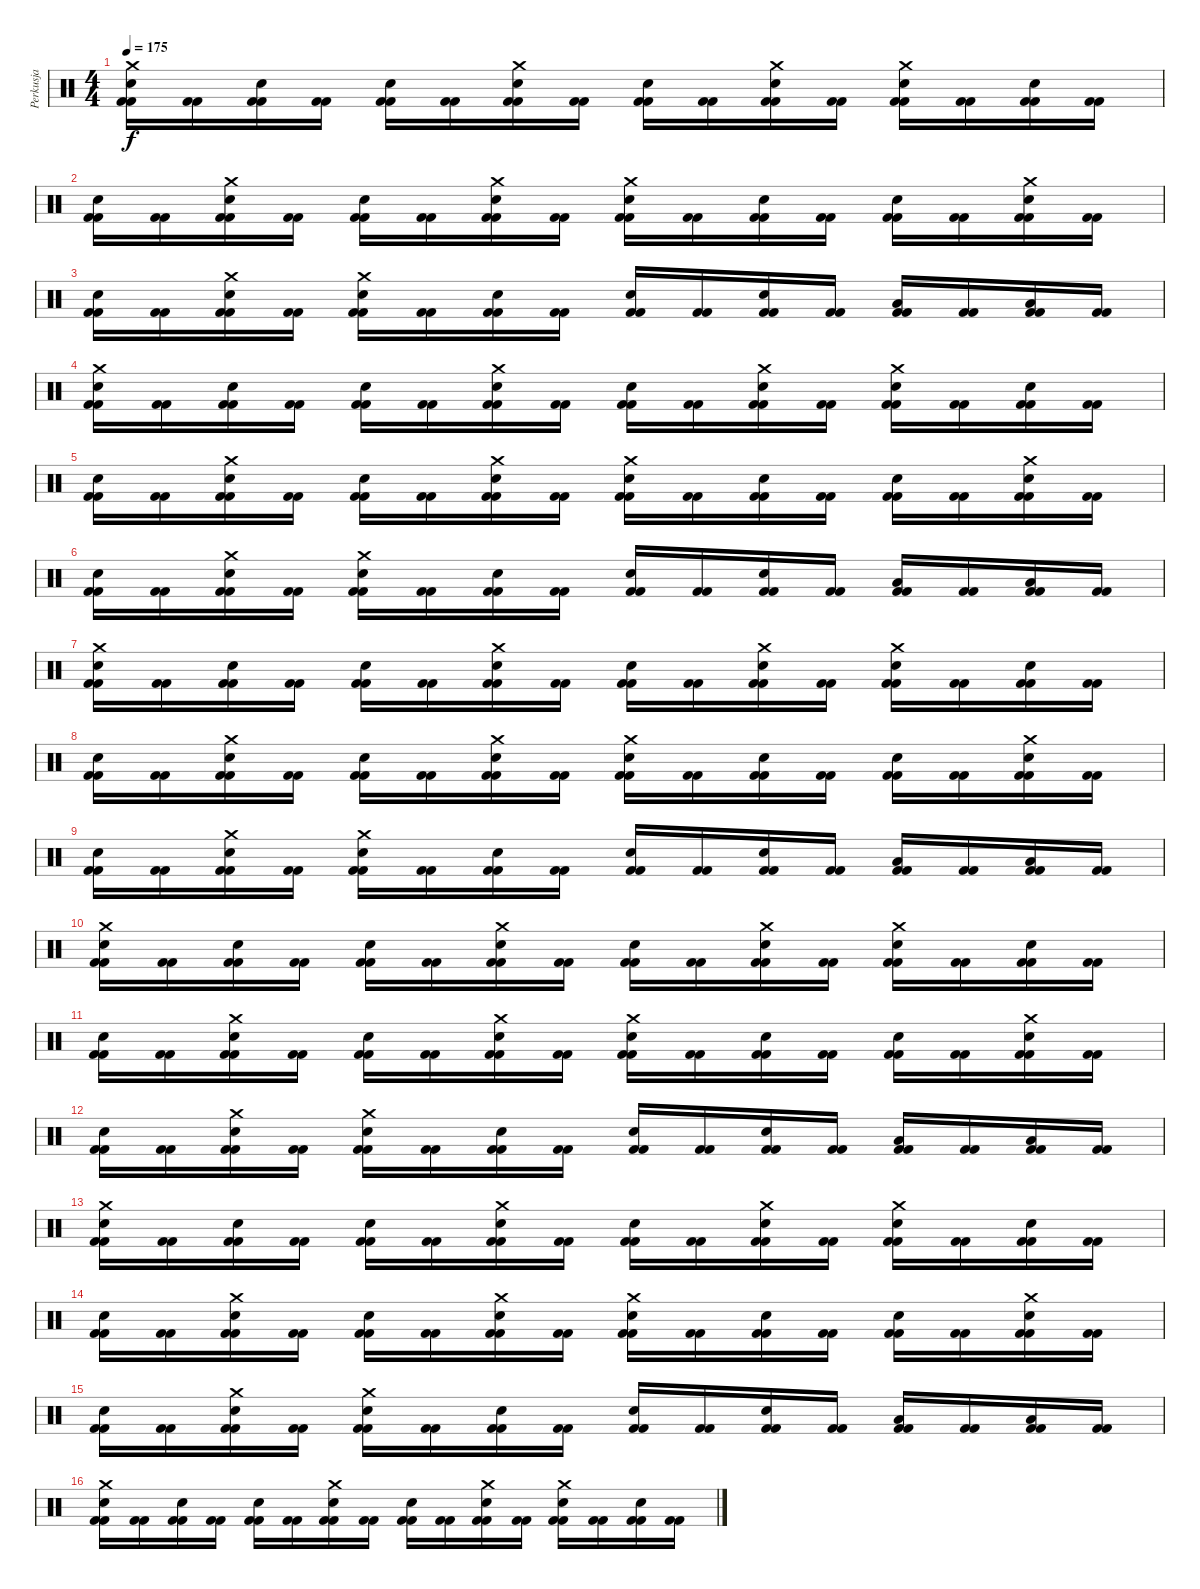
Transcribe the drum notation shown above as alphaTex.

\track ("Perkusja" "Perkusja") {instrument percussion}
\staff {score}
\articulation defaults
\ts (4 4)
\tempo 175
\clef neutral
\ks c
("Crash medium (hit)" "Snare (hit) 2" "Kick (hit) 2" "Kick (hit) 2").16{dy f} ("Kick (hit) 2" "Kick (hit) 2").16 ("Snare (hit) 2" "Kick (hit) 2" "Kick (hit) 2").16 ("Kick (hit) 2" "Kick (hit) 2").16 ("Snare (hit) 2" "Kick (hit) 2" "Kick (hit) 2").16 ("Kick (hit) 2" "Kick (hit) 2").16 ("Crash medium (hit)" "Snare (hit) 2" "Kick (hit) 2" "Kick (hit) 2").16 ("Kick (hit) 2" "Kick (hit) 2").16 ("Snare (hit) 2" "Kick (hit) 2" "Kick (hit) 2").16 ("Kick (hit) 2" "Kick (hit) 2").16 ("Crash medium (hit)" "Snare (hit) 2" "Kick (hit) 2" "Kick (hit) 2").16 ("Kick (hit) 2" "Kick (hit) 2").16 ("Crash medium (hit)" "Snare (hit) 2" "Kick (hit) 2" "Kick (hit) 2").16 ("Kick (hit) 2" "Kick (hit) 2").16 ("Snare (hit) 2" "Kick (hit) 2" "Kick (hit) 2").16 ("Kick (hit) 2" "Kick (hit) 2").16 |
("Snare (hit) 2" "Kick (hit) 2" "Kick (hit) 2").16 ("Kick (hit) 2" "Kick (hit) 2").16 ("Crash medium (hit)" "Snare (hit) 2" "Kick (hit) 2" "Kick (hit) 2").16 ("Kick (hit) 2" "Kick (hit) 2").16 ("Snare (hit) 2" "Kick (hit) 2" "Kick (hit) 2").16 ("Kick (hit) 2" "Kick (hit) 2").16 ("Crash medium (hit)" "Snare (hit) 2" "Kick (hit) 2" "Kick (hit) 2").16 ("Kick (hit) 2" "Kick (hit) 2").16 ("Crash medium (hit)" "Snare (hit) 2" "Kick (hit) 2" "Kick (hit) 2").16 ("Kick (hit) 2" "Kick (hit) 2").16 ("Snare (hit) 2" "Kick (hit) 2" "Kick (hit) 2").16 ("Kick (hit) 2" "Kick (hit) 2").16 ("Snare (hit) 2" "Kick (hit) 2" "Kick (hit) 2").16 ("Kick (hit) 2" "Kick (hit) 2").16 ("Crash medium (hit)" "Snare (hit) 2" "Kick (hit) 2" "Kick (hit) 2").16 ("Kick (hit) 2" "Kick (hit) 2").16 |
("Snare (hit) 2" "Kick (hit) 2" "Kick (hit) 2").16 ("Kick (hit) 2" "Kick (hit) 2").16 ("Crash medium (hit)" "Snare (hit) 2" "Kick (hit) 2" "Kick (hit) 2").16 ("Kick (hit) 2" "Kick (hit) 2").16 ("Crash medium (hit)" "Snare (hit) 2" "Kick (hit) 2" "Kick (hit) 2").16 ("Kick (hit) 2" "Kick (hit) 2").16 ("Snare (hit) 2" "Kick (hit) 2" "Kick (hit) 2").16 ("Kick (hit) 2" "Kick (hit) 2").16 ("Electric Snare (hit)" "Kick (hit) 2" "Kick (hit) 2").16 ("Kick (hit) 2" "Kick (hit) 2").16 ("Electric Snare (hit)" "Kick (hit) 2" "Kick (hit) 2").16 ("Kick (hit) 2" "Kick (hit) 2").16 ("Low Tom (hit)" "Kick (hit) 2" "Kick (hit) 2").16 ("Kick (hit) 2" "Kick (hit) 2").16 ("Low Tom (hit)" "Kick (hit) 2" "Kick (hit) 2").16 ("Kick (hit) 2" "Kick (hit) 2").16 |
("Crash medium (hit)" "Snare (hit) 2" "Kick (hit) 2" "Kick (hit) 2").16 ("Kick (hit) 2" "Kick (hit) 2").16 ("Snare (hit) 2" "Kick (hit) 2" "Kick (hit) 2").16 ("Kick (hit) 2" "Kick (hit) 2").16 ("Snare (hit) 2" "Kick (hit) 2" "Kick (hit) 2").16 ("Kick (hit) 2" "Kick (hit) 2").16 ("Crash medium (hit)" "Snare (hit) 2" "Kick (hit) 2" "Kick (hit) 2").16 ("Kick (hit) 2" "Kick (hit) 2").16 ("Snare (hit) 2" "Kick (hit) 2" "Kick (hit) 2").16 ("Kick (hit) 2" "Kick (hit) 2").16 ("Crash medium (hit)" "Snare (hit) 2" "Kick (hit) 2" "Kick (hit) 2").16 ("Kick (hit) 2" "Kick (hit) 2").16 ("Crash medium (hit)" "Snare (hit) 2" "Kick (hit) 2" "Kick (hit) 2").16 ("Kick (hit) 2" "Kick (hit) 2").16 ("Snare (hit) 2" "Kick (hit) 2" "Kick (hit) 2").16 ("Kick (hit) 2" "Kick (hit) 2").16 |
("Snare (hit) 2" "Kick (hit) 2" "Kick (hit) 2").16 ("Kick (hit) 2" "Kick (hit) 2").16 ("Crash medium (hit)" "Snare (hit) 2" "Kick (hit) 2" "Kick (hit) 2").16 ("Kick (hit) 2" "Kick (hit) 2").16 ("Snare (hit) 2" "Kick (hit) 2" "Kick (hit) 2").16 ("Kick (hit) 2" "Kick (hit) 2").16 ("Crash medium (hit)" "Snare (hit) 2" "Kick (hit) 2" "Kick (hit) 2").16 ("Kick (hit) 2" "Kick (hit) 2").16 ("Crash medium (hit)" "Snare (hit) 2" "Kick (hit) 2" "Kick (hit) 2").16 ("Kick (hit) 2" "Kick (hit) 2").16 ("Snare (hit) 2" "Kick (hit) 2" "Kick (hit) 2").16 ("Kick (hit) 2" "Kick (hit) 2").16 ("Snare (hit) 2" "Kick (hit) 2" "Kick (hit) 2").16 ("Kick (hit) 2" "Kick (hit) 2").16 ("Crash medium (hit)" "Snare (hit) 2" "Kick (hit) 2" "Kick (hit) 2").16 ("Kick (hit) 2" "Kick (hit) 2").16 |
("Snare (hit) 2" "Kick (hit) 2" "Kick (hit) 2").16 ("Kick (hit) 2" "Kick (hit) 2").16 ("Crash medium (hit)" "Snare (hit) 2" "Kick (hit) 2" "Kick (hit) 2").16 ("Kick (hit) 2" "Kick (hit) 2").16 ("Crash medium (hit)" "Snare (hit) 2" "Kick (hit) 2" "Kick (hit) 2").16 ("Kick (hit) 2" "Kick (hit) 2").16 ("Snare (hit) 2" "Kick (hit) 2" "Kick (hit) 2").16 ("Kick (hit) 2" "Kick (hit) 2").16 ("Electric Snare (hit)" "Kick (hit) 2" "Kick (hit) 2").16 ("Kick (hit) 2" "Kick (hit) 2").16 ("Electric Snare (hit)" "Kick (hit) 2" "Kick (hit) 2").16 ("Kick (hit) 2" "Kick (hit) 2").16 ("Low Tom (hit)" "Kick (hit) 2" "Kick (hit) 2").16 ("Kick (hit) 2" "Kick (hit) 2").16 ("Low Tom (hit)" "Kick (hit) 2" "Kick (hit) 2").16 ("Kick (hit) 2" "Kick (hit) 2").16 |
("Crash medium (hit)" "Snare (hit) 2" "Kick (hit) 2" "Kick (hit) 2").16 ("Kick (hit) 2" "Kick (hit) 2").16 ("Snare (hit) 2" "Kick (hit) 2" "Kick (hit) 2").16 ("Kick (hit) 2" "Kick (hit) 2").16 ("Snare (hit) 2" "Kick (hit) 2" "Kick (hit) 2").16 ("Kick (hit) 2" "Kick (hit) 2").16 ("Crash medium (hit)" "Snare (hit) 2" "Kick (hit) 2" "Kick (hit) 2").16 ("Kick (hit) 2" "Kick (hit) 2").16 ("Snare (hit) 2" "Kick (hit) 2" "Kick (hit) 2").16 ("Kick (hit) 2" "Kick (hit) 2").16 ("Crash medium (hit)" "Snare (hit) 2" "Kick (hit) 2" "Kick (hit) 2").16 ("Kick (hit) 2" "Kick (hit) 2").16 ("Crash medium (hit)" "Snare (hit) 2" "Kick (hit) 2" "Kick (hit) 2").16 ("Kick (hit) 2" "Kick (hit) 2").16 ("Snare (hit) 2" "Kick (hit) 2" "Kick (hit) 2").16 ("Kick (hit) 2" "Kick (hit) 2").16 |
("Snare (hit) 2" "Kick (hit) 2" "Kick (hit) 2").16 ("Kick (hit) 2" "Kick (hit) 2").16 ("Crash medium (hit)" "Snare (hit) 2" "Kick (hit) 2" "Kick (hit) 2").16 ("Kick (hit) 2" "Kick (hit) 2").16 ("Snare (hit) 2" "Kick (hit) 2" "Kick (hit) 2").16 ("Kick (hit) 2" "Kick (hit) 2").16 ("Crash medium (hit)" "Snare (hit) 2" "Kick (hit) 2" "Kick (hit) 2").16 ("Kick (hit) 2" "Kick (hit) 2").16 ("Crash medium (hit)" "Snare (hit) 2" "Kick (hit) 2" "Kick (hit) 2").16 ("Kick (hit) 2" "Kick (hit) 2").16 ("Snare (hit) 2" "Kick (hit) 2" "Kick (hit) 2").16 ("Kick (hit) 2" "Kick (hit) 2").16 ("Snare (hit) 2" "Kick (hit) 2" "Kick (hit) 2").16 ("Kick (hit) 2" "Kick (hit) 2").16 ("Crash medium (hit)" "Snare (hit) 2" "Kick (hit) 2" "Kick (hit) 2").16 ("Kick (hit) 2" "Kick (hit) 2").16 |
("Snare (hit) 2" "Kick (hit) 2" "Kick (hit) 2").16 ("Kick (hit) 2" "Kick (hit) 2").16 ("Crash medium (hit)" "Snare (hit) 2" "Kick (hit) 2" "Kick (hit) 2").16 ("Kick (hit) 2" "Kick (hit) 2").16 ("Crash medium (hit)" "Snare (hit) 2" "Kick (hit) 2" "Kick (hit) 2").16 ("Kick (hit) 2" "Kick (hit) 2").16 ("Snare (hit) 2" "Kick (hit) 2" "Kick (hit) 2").16 ("Kick (hit) 2" "Kick (hit) 2").16 ("Electric Snare (hit)" "Kick (hit) 2" "Kick (hit) 2").16 ("Kick (hit) 2" "Kick (hit) 2").16 ("Electric Snare (hit)" "Kick (hit) 2" "Kick (hit) 2").16 ("Kick (hit) 2" "Kick (hit) 2").16 ("Low Tom (hit)" "Kick (hit) 2" "Kick (hit) 2").16 ("Kick (hit) 2" "Kick (hit) 2").16 ("Low Tom (hit)" "Kick (hit) 2" "Kick (hit) 2").16 ("Kick (hit) 2" "Kick (hit) 2").16 |
("Crash medium (hit)" "Snare (hit) 2" "Kick (hit) 2" "Kick (hit) 2").16 ("Kick (hit) 2" "Kick (hit) 2").16 ("Snare (hit) 2" "Kick (hit) 2" "Kick (hit) 2").16 ("Kick (hit) 2" "Kick (hit) 2").16 ("Snare (hit) 2" "Kick (hit) 2" "Kick (hit) 2").16 ("Kick (hit) 2" "Kick (hit) 2").16 ("Crash medium (hit)" "Snare (hit) 2" "Kick (hit) 2" "Kick (hit) 2").16 ("Kick (hit) 2" "Kick (hit) 2").16 ("Snare (hit) 2" "Kick (hit) 2" "Kick (hit) 2").16 ("Kick (hit) 2" "Kick (hit) 2").16 ("Crash medium (hit)" "Snare (hit) 2" "Kick (hit) 2" "Kick (hit) 2").16 ("Kick (hit) 2" "Kick (hit) 2").16 ("Crash medium (hit)" "Snare (hit) 2" "Kick (hit) 2" "Kick (hit) 2").16 ("Kick (hit) 2" "Kick (hit) 2").16 ("Snare (hit) 2" "Kick (hit) 2" "Kick (hit) 2").16 ("Kick (hit) 2" "Kick (hit) 2").16 |
("Snare (hit) 2" "Kick (hit) 2" "Kick (hit) 2").16 ("Kick (hit) 2" "Kick (hit) 2").16 ("Crash medium (hit)" "Snare (hit) 2" "Kick (hit) 2" "Kick (hit) 2").16 ("Kick (hit) 2" "Kick (hit) 2").16 ("Snare (hit) 2" "Kick (hit) 2" "Kick (hit) 2").16 ("Kick (hit) 2" "Kick (hit) 2").16 ("Crash medium (hit)" "Snare (hit) 2" "Kick (hit) 2" "Kick (hit) 2").16 ("Kick (hit) 2" "Kick (hit) 2").16 ("Crash medium (hit)" "Snare (hit) 2" "Kick (hit) 2" "Kick (hit) 2").16 ("Kick (hit) 2" "Kick (hit) 2").16 ("Snare (hit) 2" "Kick (hit) 2" "Kick (hit) 2").16 ("Kick (hit) 2" "Kick (hit) 2").16 ("Snare (hit) 2" "Kick (hit) 2" "Kick (hit) 2").16 ("Kick (hit) 2" "Kick (hit) 2").16 ("Crash medium (hit)" "Snare (hit) 2" "Kick (hit) 2" "Kick (hit) 2").16 ("Kick (hit) 2" "Kick (hit) 2").16 |
("Snare (hit) 2" "Kick (hit) 2" "Kick (hit) 2").16 ("Kick (hit) 2" "Kick (hit) 2").16 ("Crash medium (hit)" "Snare (hit) 2" "Kick (hit) 2" "Kick (hit) 2").16 ("Kick (hit) 2" "Kick (hit) 2").16 ("Crash medium (hit)" "Snare (hit) 2" "Kick (hit) 2" "Kick (hit) 2").16 ("Kick (hit) 2" "Kick (hit) 2").16 ("Snare (hit) 2" "Kick (hit) 2" "Kick (hit) 2").16 ("Kick (hit) 2" "Kick (hit) 2").16 ("Electric Snare (hit)" "Kick (hit) 2" "Kick (hit) 2").16 ("Kick (hit) 2" "Kick (hit) 2").16 ("Electric Snare (hit)" "Kick (hit) 2" "Kick (hit) 2").16 ("Kick (hit) 2" "Kick (hit) 2").16 ("Low Tom (hit)" "Kick (hit) 2" "Kick (hit) 2").16 ("Kick (hit) 2" "Kick (hit) 2").16 ("Low Tom (hit)" "Kick (hit) 2" "Kick (hit) 2").16 ("Kick (hit) 2" "Kick (hit) 2").16 |
("Crash medium (hit)" "Snare (hit) 2" "Kick (hit) 2" "Kick (hit) 2").16 ("Kick (hit) 2" "Kick (hit) 2").16 ("Snare (hit) 2" "Kick (hit) 2" "Kick (hit) 2").16 ("Kick (hit) 2" "Kick (hit) 2").16 ("Snare (hit) 2" "Kick (hit) 2" "Kick (hit) 2").16 ("Kick (hit) 2" "Kick (hit) 2").16 ("Crash medium (hit)" "Snare (hit) 2" "Kick (hit) 2" "Kick (hit) 2").16 ("Kick (hit) 2" "Kick (hit) 2").16 ("Snare (hit) 2" "Kick (hit) 2" "Kick (hit) 2").16 ("Kick (hit) 2" "Kick (hit) 2").16 ("Crash medium (hit)" "Snare (hit) 2" "Kick (hit) 2" "Kick (hit) 2").16 ("Kick (hit) 2" "Kick (hit) 2").16 ("Crash medium (hit)" "Snare (hit) 2" "Kick (hit) 2" "Kick (hit) 2").16 ("Kick (hit) 2" "Kick (hit) 2").16 ("Snare (hit) 2" "Kick (hit) 2" "Kick (hit) 2").16 ("Kick (hit) 2" "Kick (hit) 2").16 |
("Snare (hit) 2" "Kick (hit) 2" "Kick (hit) 2").16 ("Kick (hit) 2" "Kick (hit) 2").16 ("Crash medium (hit)" "Snare (hit) 2" "Kick (hit) 2" "Kick (hit) 2").16 ("Kick (hit) 2" "Kick (hit) 2").16 ("Snare (hit) 2" "Kick (hit) 2" "Kick (hit) 2").16 ("Kick (hit) 2" "Kick (hit) 2").16 ("Crash medium (hit)" "Snare (hit) 2" "Kick (hit) 2" "Kick (hit) 2").16 ("Kick (hit) 2" "Kick (hit) 2").16 ("Crash medium (hit)" "Snare (hit) 2" "Kick (hit) 2" "Kick (hit) 2").16 ("Kick (hit) 2" "Kick (hit) 2").16 ("Snare (hit) 2" "Kick (hit) 2" "Kick (hit) 2").16 ("Kick (hit) 2" "Kick (hit) 2").16 ("Snare (hit) 2" "Kick (hit) 2" "Kick (hit) 2").16 ("Kick (hit) 2" "Kick (hit) 2").16 ("Crash medium (hit)" "Snare (hit) 2" "Kick (hit) 2" "Kick (hit) 2").16 ("Kick (hit) 2" "Kick (hit) 2").16 |
("Snare (hit) 2" "Kick (hit) 2" "Kick (hit) 2").16 ("Kick (hit) 2" "Kick (hit) 2").16 ("Crash medium (hit)" "Snare (hit) 2" "Kick (hit) 2" "Kick (hit) 2").16 ("Kick (hit) 2" "Kick (hit) 2").16 ("Crash medium (hit)" "Snare (hit) 2" "Kick (hit) 2" "Kick (hit) 2").16 ("Kick (hit) 2" "Kick (hit) 2").16 ("Snare (hit) 2" "Kick (hit) 2" "Kick (hit) 2").16 ("Kick (hit) 2" "Kick (hit) 2").16 ("Electric Snare (hit)" "Kick (hit) 2" "Kick (hit) 2").16 ("Kick (hit) 2" "Kick (hit) 2").16 ("Electric Snare (hit)" "Kick (hit) 2" "Kick (hit) 2").16 ("Kick (hit) 2" "Kick (hit) 2").16 ("Low Tom (hit)" "Kick (hit) 2" "Kick (hit) 2").16 ("Kick (hit) 2" "Kick (hit) 2").16 ("Low Tom (hit)" "Kick (hit) 2" "Kick (hit) 2").16 ("Kick (hit) 2" "Kick (hit) 2").16 |
("Crash medium (hit)" "Snare (hit) 2" "Kick (hit) 2" "Kick (hit) 2").16 ("Kick (hit) 2" "Kick (hit) 2").16 ("Snare (hit) 2" "Kick (hit) 2" "Kick (hit) 2").16 ("Kick (hit) 2" "Kick (hit) 2").16 ("Snare (hit) 2" "Kick (hit) 2" "Kick (hit) 2").16 ("Kick (hit) 2" "Kick (hit) 2").16 ("Crash medium (hit)" "Snare (hit) 2" "Kick (hit) 2" "Kick (hit) 2").16 ("Kick (hit) 2" "Kick (hit) 2").16 ("Snare (hit) 2" "Kick (hit) 2" "Kick (hit) 2").16 ("Kick (hit) 2" "Kick (hit) 2").16 ("Crash medium (hit)" "Snare (hit) 2" "Kick (hit) 2" "Kick (hit) 2").16 ("Kick (hit) 2" "Kick (hit) 2").16 ("Crash medium (hit)" "Snare (hit) 2" "Kick (hit) 2" "Kick (hit) 2").16 ("Kick (hit) 2" "Kick (hit) 2").16 ("Snare (hit) 2" "Kick (hit) 2" "Kick (hit) 2").16 ("Kick (hit) 2" "Kick (hit) 2").16
